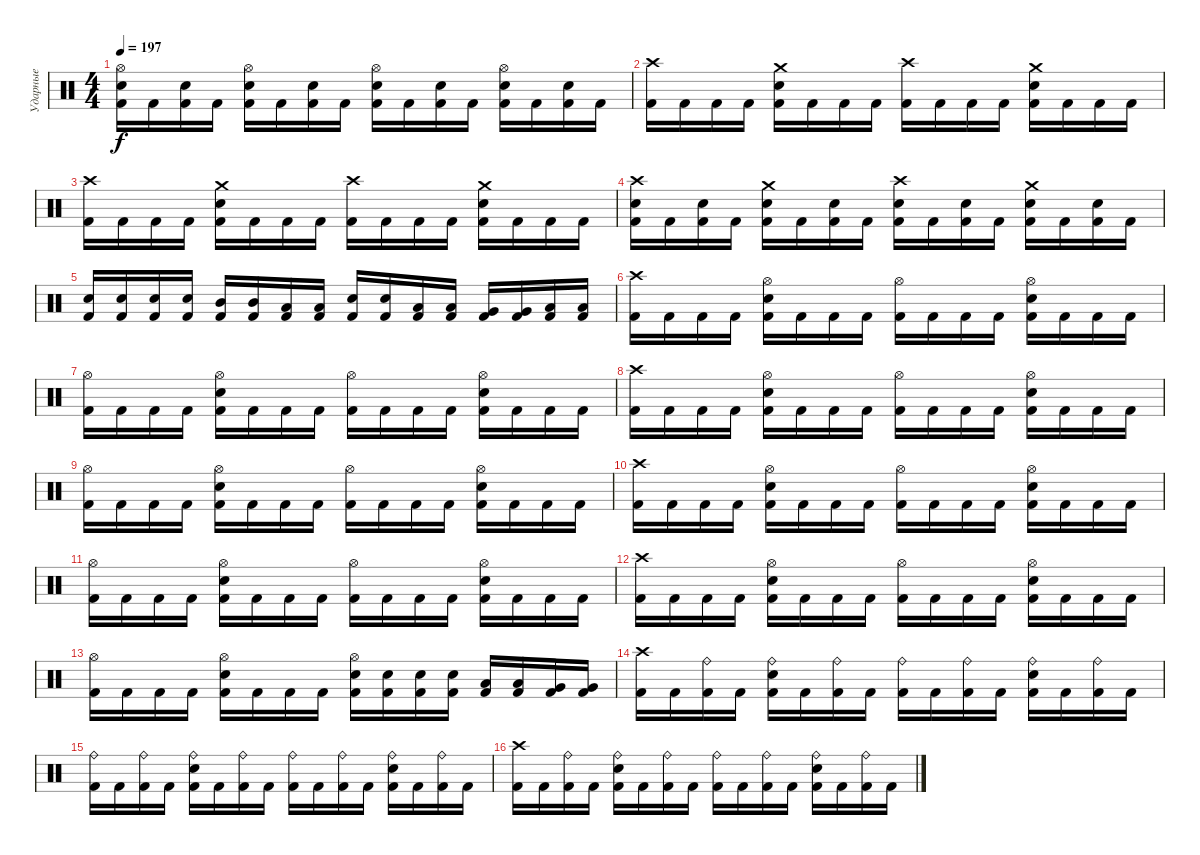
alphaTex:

\track ("Ударные" "Ударные") {instrument percussion}
\staff {score}
\articulation defaults
\ts (4 4)
\tempo 197
\clef neutral
\ks c
("Hi-Hat (open)" "Snare (hit) 2" "Kick (hit) 2").16{dy f} "Kick (hit) 2".16 ("Snare (hit) 2" "Kick (hit) 2").16 "Kick (hit) 2".16 ("Hi-Hat (open)" "Snare (hit) 2" "Kick (hit) 2").16 "Kick (hit) 2".16 ("Snare (hit) 2" "Kick (hit) 2").16 "Kick (hit) 2".16 ("Hi-Hat (open)" "Snare (hit) 2" "Kick (hit) 2").16 "Kick (hit) 2".16 ("Snare (hit) 2" "Kick (hit) 2").16 "Kick (hit) 2".16 ("Hi-Hat (open)" "Snare (hit) 2" "Kick (hit) 2").16 "Kick (hit) 2".16 ("Snare (hit) 2" "Kick (hit) 2").16 "Kick (hit) 2".16 |
("Crash high (hit)" "Kick (hit) 2").16 "Kick (hit) 2".16 "Kick (hit) 2".16 "Kick (hit) 2".16 ("Crash medium (hit)" "Snare (hit) 2" "Kick (hit) 2").16 "Kick (hit) 2".16 "Kick (hit) 2".16 "Kick (hit) 2".16 ("Crash high (hit)" "Kick (hit) 2").16 "Kick (hit) 2".16 "Kick (hit) 2".16 "Kick (hit) 2".16 ("Crash medium (hit)" "Snare (hit) 2" "Kick (hit) 2").16 "Kick (hit) 2".16 "Kick (hit) 2".16 "Kick (hit) 2".16 |
("Crash high (hit)" "Kick (hit) 2").16 "Kick (hit) 2".16 "Kick (hit) 2".16 "Kick (hit) 2".16 ("Crash medium (hit)" "Snare (hit) 2" "Kick (hit) 2").16 "Kick (hit) 2".16 "Kick (hit) 2".16 "Kick (hit) 2".16 ("Crash high (hit)" "Kick (hit) 2").16 "Kick (hit) 2".16 "Kick (hit) 2".16 "Kick (hit) 2".16 ("Crash medium (hit)" "Snare (hit) 2" "Kick (hit) 2").16 "Kick (hit) 2".16 "Kick (hit) 2".16 "Kick (hit) 2".16 |
("Crash high (hit)" "Snare (hit) 2" "Kick (hit) 2").16 "Kick (hit) 2".16 ("Snare (hit) 2" "Kick (hit) 2").16 "Kick (hit) 2".16 ("Crash medium (hit)" "Snare (hit) 2" "Kick (hit) 2").16 "Kick (hit) 2".16 ("Snare (hit) 2" "Kick (hit) 2").16 "Kick (hit) 2".16 ("Crash high (hit)" "Snare (hit) 2" "Kick (hit) 2").16 "Kick (hit) 2".16 ("Snare (hit) 2" "Kick (hit) 2").16 "Kick (hit) 2".16 ("Crash medium (hit)" "Snare (hit) 2" "Kick (hit) 2").16 "Kick (hit) 2".16 ("Snare (hit) 2" "Kick (hit) 2").16 "Kick (hit) 2".16 |
("Snare (hit) 2" "Kick (hit) 2").16 ("Snare (hit) 2" "Kick (hit) 2").16 ("Snare (hit) 2" "Kick (hit) 2").16 ("Snare (hit) 2" "Kick (hit) 2").16 ("Mid Tom (hit)" "Kick (hit) 2").16 ("Mid Tom (hit)" "Kick (hit) 2").16 ("Low Tom (hit)" "Kick (hit) 2").16 ("Low Tom (hit)" "Kick (hit) 2").16 ("Snare (hit) 2" "Kick (hit) 2").16 ("Snare (hit) 2" "Kick (hit) 2").16 ("Low Tom (hit)" "Kick (hit) 2").16 ("Low Tom (hit)" "Kick (hit) 2").16 ("Very Low Tom (hit)" "Kick (hit) 2").16 ("Very Low Tom (hit)" "Kick (hit) 2").16 ("Low Floor Tom (hit)" "Kick (hit) 2").16 ("Low Floor Tom (hit)" "Kick (hit) 2").16 |
("Crash high (hit)" "Kick (hit) 2").16 "Kick (hit) 2".16 "Kick (hit) 2".16 "Kick (hit) 2".16 ("Hi-Hat (open)" "Snare (hit) 2" "Kick (hit) 2").16 "Kick (hit) 2".16 "Kick (hit) 2".16 "Kick (hit) 2".16 ("Hi-Hat (open)" "Kick (hit) 2").16 "Kick (hit) 2".16 "Kick (hit) 2".16 "Kick (hit) 2".16 ("Hi-Hat (open)" "Snare (hit) 2" "Kick (hit) 2").16 "Kick (hit) 2".16 "Kick (hit) 2".16 "Kick (hit) 2".16 |
("Hi-Hat (open)" "Kick (hit) 2").16 "Kick (hit) 2".16 "Kick (hit) 2".16 "Kick (hit) 2".16 ("Hi-Hat (open)" "Snare (hit) 2" "Kick (hit) 2").16 "Kick (hit) 2".16 "Kick (hit) 2".16 "Kick (hit) 2".16 ("Hi-Hat (open)" "Kick (hit) 2").16 "Kick (hit) 2".16 "Kick (hit) 2".16 "Kick (hit) 2".16 ("Hi-Hat (open)" "Snare (hit) 2" "Kick (hit) 2").16 "Kick (hit) 2".16 "Kick (hit) 2".16 "Kick (hit) 2".16 |
("Crash high (hit)" "Kick (hit) 2").16 "Kick (hit) 2".16 "Kick (hit) 2".16 "Kick (hit) 2".16 ("Hi-Hat (open)" "Snare (hit) 2" "Kick (hit) 2").16 "Kick (hit) 2".16 "Kick (hit) 2".16 "Kick (hit) 2".16 ("Hi-Hat (open)" "Kick (hit) 2").16 "Kick (hit) 2".16 "Kick (hit) 2".16 "Kick (hit) 2".16 ("Hi-Hat (open)" "Snare (hit) 2" "Kick (hit) 2").16 "Kick (hit) 2".16 "Kick (hit) 2".16 "Kick (hit) 2".16 |
("Hi-Hat (open)" "Kick (hit) 2").16 "Kick (hit) 2".16 "Kick (hit) 2".16 "Kick (hit) 2".16 ("Hi-Hat (open)" "Snare (hit) 2" "Kick (hit) 2").16 "Kick (hit) 2".16 "Kick (hit) 2".16 "Kick (hit) 2".16 ("Hi-Hat (open)" "Kick (hit) 2").16 "Kick (hit) 2".16 "Kick (hit) 2".16 "Kick (hit) 2".16 ("Hi-Hat (open)" "Snare (hit) 2" "Kick (hit) 2").16 "Kick (hit) 2".16 "Kick (hit) 2".16 "Kick (hit) 2".16 |
("Crash high (hit)" "Kick (hit) 2").16 "Kick (hit) 2".16 "Kick (hit) 2".16 "Kick (hit) 2".16 ("Hi-Hat (open)" "Snare (hit) 2" "Kick (hit) 2").16 "Kick (hit) 2".16 "Kick (hit) 2".16 "Kick (hit) 2".16 ("Hi-Hat (open)" "Kick (hit) 2").16 "Kick (hit) 2".16 "Kick (hit) 2".16 "Kick (hit) 2".16 ("Hi-Hat (open)" "Snare (hit) 2" "Kick (hit) 2").16 "Kick (hit) 2".16 "Kick (hit) 2".16 "Kick (hit) 2".16 |
("Hi-Hat (open)" "Kick (hit) 2").16 "Kick (hit) 2".16 "Kick (hit) 2".16 "Kick (hit) 2".16 ("Hi-Hat (open)" "Snare (hit) 2" "Kick (hit) 2").16 "Kick (hit) 2".16 "Kick (hit) 2".16 "Kick (hit) 2".16 ("Hi-Hat (open)" "Kick (hit) 2").16 "Kick (hit) 2".16 "Kick (hit) 2".16 "Kick (hit) 2".16 ("Hi-Hat (open)" "Snare (hit) 2" "Kick (hit) 2").16 "Kick (hit) 2".16 "Kick (hit) 2".16 "Kick (hit) 2".16 |
("Crash high (hit)" "Kick (hit) 2").16 "Kick (hit) 2".16 "Kick (hit) 2".16 "Kick (hit) 2".16 ("Hi-Hat (open)" "Snare (hit) 2" "Kick (hit) 2").16 "Kick (hit) 2".16 "Kick (hit) 2".16 "Kick (hit) 2".16 ("Hi-Hat (open)" "Kick (hit) 2").16 "Kick (hit) 2".16 "Kick (hit) 2".16 "Kick (hit) 2".16 ("Hi-Hat (open)" "Snare (hit) 2" "Kick (hit) 2").16 "Kick (hit) 2".16 "Kick (hit) 2".16 "Kick (hit) 2".16 |
("Hi-Hat (open)" "Kick (hit) 2").16 "Kick (hit) 2".16 "Kick (hit) 2".16 "Kick (hit) 2".16 ("Hi-Hat (open)" "Snare (hit) 2" "Kick (hit) 2").16 "Kick (hit) 2".16 "Kick (hit) 2".16 "Kick (hit) 2".16 ("Hi-Hat (open)" "Snare (hit) 2" "Kick (hit) 2").16 ("Snare (hit) 2" "Kick (hit) 2").16 ("Snare (hit) 2" "Kick (hit) 2").16 ("Snare (hit) 2" "Kick (hit) 2").16 ("Low Tom (hit)" "Kick (hit) 2").16 ("Low Tom (hit)" "Kick (hit) 2").16 ("Very Low Tom (hit)" "Kick (hit) 2").16 ("Very Low Tom (hit)" "Kick (hit) 2").16 |
("Crash high (hit)" "Kick (hit) 2").16 "Kick (hit) 2".16 ("Ride (bell)" "Kick (hit) 2").16 "Kick (hit) 2".16 ("Ride (bell)" "Snare (hit) 2" "Kick (hit) 2").16 "Kick (hit) 2".16 ("Ride (bell)" "Kick (hit) 2").16 "Kick (hit) 2".16 ("Ride (bell)" "Kick (hit) 2").16 "Kick (hit) 2".16 ("Ride (bell)" "Kick (hit) 2").16 "Kick (hit) 2".16 ("Ride (bell)" "Snare (hit) 2" "Kick (hit) 2").16 "Kick (hit) 2".16 ("Ride (bell)" "Kick (hit) 2").16 "Kick (hit) 2".16 |
("Ride (bell)" "Kick (hit) 2").16 "Kick (hit) 2".16 ("Ride (bell)" "Kick (hit) 2").16 "Kick (hit) 2".16 ("Ride (bell)" "Snare (hit) 2" "Kick (hit) 2").16 "Kick (hit) 2".16 ("Ride (bell)" "Kick (hit) 2").16 "Kick (hit) 2".16 ("Ride (bell)" "Kick (hit) 2").16 "Kick (hit) 2".16 ("Ride (bell)" "Kick (hit) 2").16 "Kick (hit) 2".16 ("Ride (bell)" "Snare (hit) 2" "Kick (hit) 2").16 "Kick (hit) 2".16 ("Ride (bell)" "Kick (hit) 2").16 "Kick (hit) 2".16 |
("Crash high (hit)" "Kick (hit) 2").16 "Kick (hit) 2".16 ("Ride (bell)" "Kick (hit) 2").16 "Kick (hit) 2".16 ("Ride (bell)" "Snare (hit) 2" "Kick (hit) 2").16 "Kick (hit) 2".16 ("Ride (bell)" "Kick (hit) 2").16 "Kick (hit) 2".16 ("Ride (bell)" "Kick (hit) 2").16 "Kick (hit) 2".16 ("Ride (bell)" "Kick (hit) 2").16 "Kick (hit) 2".16 ("Ride (bell)" "Snare (hit) 2" "Kick (hit) 2").16 "Kick (hit) 2".16 ("Ride (bell)" "Kick (hit) 2").16 "Kick (hit) 2".16
